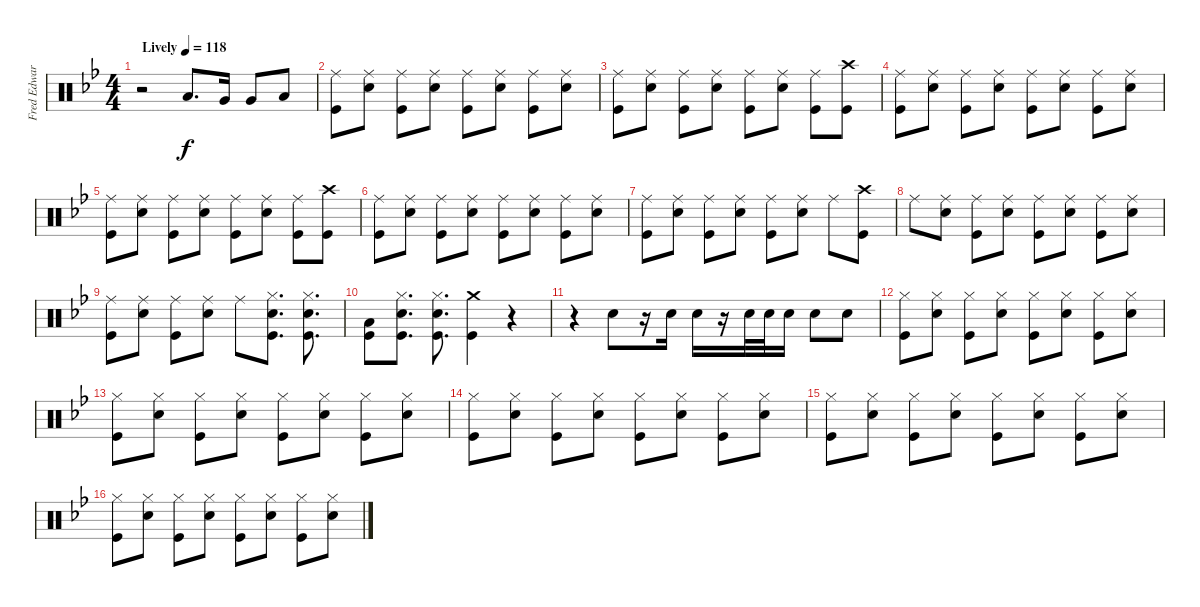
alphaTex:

\track ("Fred Edwards Drums" "Fred Edwar") {instrument percussion}
\staff {score}
\articulation defaults
\ts (4 4)
\tempo (118 "Lively")
\clef neutral
\ks gminor
r.2{dy f} "Low Tom (hit)".8{d} "Very Low Tom (hit)".16 "Very Low Tom (hit)".8 "Low Floor Tom (hit)".8 |
("Ride (middle)" "Kick (hit)").8 ("Ride (middle)" "Snare (hit) 2").8 ("Ride (middle)" "Kick (hit)").8 ("Ride (middle)" "Snare (hit) 2").8 ("Ride (middle)" "Kick (hit)").8 ("Ride (middle)" "Snare (hit) 2").8 ("Ride (middle)" "Kick (hit)").8 ("Ride (middle)" "Snare (hit) 2").8 |
("Ride (middle)" "Kick (hit)").8 ("Ride (middle)" "Snare (hit) 2").8 ("Ride (middle)" "Kick (hit)").8 ("Ride (middle)" "Snare (hit) 2").8 ("Ride (middle)" "Kick (hit)").8 ("Ride (middle)" "Snare (hit) 2").8 ("Ride (middle)" "Kick (hit)").8 ("Crash high (hit)" "Kick (hit)").8 |
("Ride (middle)" "Kick (hit)").8 ("Ride (middle)" "Snare (hit) 2").8 ("Ride (middle)" "Kick (hit)").8 ("Ride (middle)" "Snare (hit) 2").8 ("Ride (middle)" "Kick (hit)").8 ("Ride (middle)" "Snare (hit) 2").8 ("Ride (middle)" "Kick (hit)").8 ("Ride (middle)" "Snare (hit) 2").8 |
("Ride (middle)" "Kick (hit)").8 ("Ride (middle)" "Snare (hit) 2").8 ("Ride (middle)" "Kick (hit)").8 ("Ride (middle)" "Snare (hit) 2").8 ("Ride (middle)" "Kick (hit)").8 ("Ride (middle)" "Snare (hit) 2").8 ("Ride (middle)" "Kick (hit)").8 ("Crash high (hit)" "Kick (hit)").8 |
("Ride (middle)" "Kick (hit)").8 ("Ride (middle)" "Snare (hit) 2").8 ("Ride (middle)" "Kick (hit)").8 ("Ride (middle)" "Snare (hit) 2").8 ("Ride (middle)" "Kick (hit)").8 ("Ride (middle)" "Snare (hit) 2").8 ("Ride (middle)" "Kick (hit)").8 ("Ride (middle)" "Snare (hit) 2").8 |
("Ride (middle)" "Kick (hit)").8 ("Ride (middle)" "Snare (hit) 2").8 ("Ride (middle)" "Kick (hit)").8 ("Ride (middle)" "Snare (hit) 2").8 ("Ride (middle)" "Kick (hit)").8 ("Ride (middle)" "Snare (hit) 2").8 "Ride (middle)".8 ("Crash high (hit)" "Kick (hit)").8 |
"Ride (middle)".8 ("Ride (middle)" "Snare (hit) 2").8 ("Ride (middle)" "Kick (hit)").8 ("Ride (middle)" "Snare (hit) 2").8 ("Ride (middle)" "Kick (hit)").8 ("Ride (middle)" "Snare (hit) 2").8 ("Ride (middle)" "Kick (hit)").8 ("Ride (middle)" "Snare (hit) 2").8 |
("Ride (middle)" "Kick (hit)").8 ("Ride (middle)" "Snare (hit) 2").8 ("Ride (middle)" "Kick (hit)").8 ("Ride (middle)" "Snare (hit) 2").8 "Ride (middle)".8 ("Hi-Hat (closed)" "Snare (hit) 2" "Kick (hit)").8{d} ("Hi-Hat (closed)" "Snare (hit) 2" "Kick (hit)").8{d} |
("Low Floor Tom (hit)" "Kick (hit)").8 ("Hi-Hat (closed)" "Snare (hit) 2" "Kick (hit)").8{d} ("Hi-Hat (closed)" "Snare (hit) 2" "Kick (hit)").8{d} ("Crash medium (hit)" "Kick (hit)").4 r.4 |
r.4 "Snare (hit) 2".8 r.16 "Snare (hit) 2".16 "Snare (hit) 2".16 r.16 "Snare (hit) 2".32 "Snare (hit) 2".32 "Snare (hit) 2".16 "Snare (hit) 2".8 "Snare (hit) 2".8 |
("Hi-Hat (closed)" "Kick (hit)").8 ("Hi-Hat (closed)" "Snare (hit) 2").8 ("Hi-Hat (closed)" "Kick (hit)").8 ("Hi-Hat (closed)" "Snare (hit) 2").8 ("Hi-Hat (closed)" "Kick (hit)").8 ("Hi-Hat (closed)" "Snare (hit) 2").8 ("Hi-Hat (closed)" "Kick (hit)").8 ("Hi-Hat (closed)" "Snare (hit) 2").8 |
("Hi-Hat (closed)" "Kick (hit)").8 ("Hi-Hat (closed)" "Snare (hit) 2").8 ("Hi-Hat (closed)" "Kick (hit)").8 ("Hi-Hat (closed)" "Snare (hit) 2").8 ("Hi-Hat (closed)" "Kick (hit)").8 ("Hi-Hat (closed)" "Snare (hit) 2").8 ("Hi-Hat (closed)" "Kick (hit)").8 ("Hi-Hat (closed)" "Snare (hit) 2").8 |
("Hi-Hat (closed)" "Kick (hit)").8 ("Hi-Hat (closed)" "Snare (hit) 2").8 ("Hi-Hat (closed)" "Kick (hit)").8 ("Hi-Hat (closed)" "Snare (hit) 2").8 ("Hi-Hat (closed)" "Kick (hit)").8 ("Hi-Hat (closed)" "Snare (hit) 2").8 ("Hi-Hat (closed)" "Kick (hit)").8 ("Hi-Hat (closed)" "Snare (hit) 2").8 |
("Hi-Hat (closed)" "Kick (hit)").8 ("Hi-Hat (closed)" "Snare (hit) 2").8 ("Hi-Hat (closed)" "Kick (hit)").8 ("Hi-Hat (closed)" "Snare (hit) 2").8 ("Hi-Hat (closed)" "Kick (hit)").8 ("Hi-Hat (closed)" "Snare (hit) 2").8 ("Hi-Hat (closed)" "Kick (hit)").8 ("Hi-Hat (closed)" "Snare (hit) 2").8 |
("Hi-Hat (closed)" "Kick (hit)").8 ("Hi-Hat (closed)" "Snare (hit) 2").8 ("Hi-Hat (closed)" "Kick (hit)").8 ("Hi-Hat (closed)" "Snare (hit) 2").8 ("Hi-Hat (closed)" "Kick (hit)").8 ("Hi-Hat (closed)" "Snare (hit) 2").8 ("Hi-Hat (closed)" "Kick (hit)").8 ("Hi-Hat (closed)" "Snare (hit) 2").8
